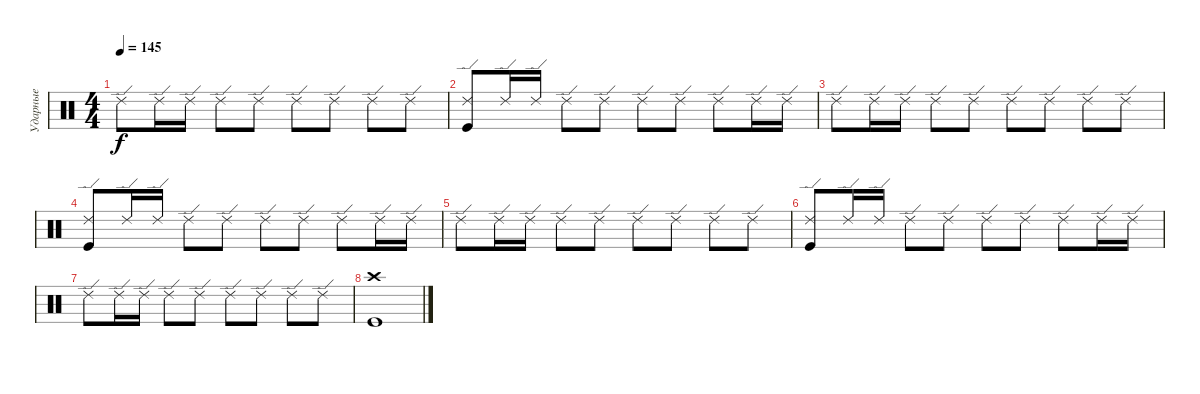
\track ("Ударные" "Ударные") {instrument percussion}
\staff {score}
\articulation defaults
\ts (4 4)
\tempo 145
\clef neutral
\ks c "Ride (edge) 2".8{dy f} "Ride (edge) 2".16 "Ride (edge) 2".16 "Ride (edge) 2".8 "Ride (edge) 2".8 "Ride (edge) 2".8 "Ride (edge) 2".8 "Ride (edge) 2".8 "Ride (edge) 2".8
|
("Ride (edge) 2" "Kick (hit)").8 "Ride (edge) 2".16 "Ride (edge) 2".16 "Ride (edge) 2".8 "Ride (edge) 2".8 "Ride (edge) 2".8 "Ride (edge) 2".8 "Ride (edge) 2".8 "Ride (edge) 2".16 "Ride (edge) 2".16 |
"Ride (edge) 2".8 "Ride (edge) 2".16 "Ride (edge) 2".16 "Ride (edge) 2".8 "Ride (edge) 2".8 "Ride (edge) 2".8 "Ride (edge) 2".8 "Ride (edge) 2".8 "Ride (edge) 2".8 |
("Ride (edge) 2" "Kick (hit)").8 "Ride (edge) 2".16 "Ride (edge) 2".16 "Ride (edge) 2".8 "Ride (edge) 2".8 "Ride (edge) 2".8 "Ride (edge) 2".8 "Ride (edge) 2".8 "Ride (edge) 2".16 "Ride (edge) 2".16 |
"Ride (edge) 2".8 "Ride (edge) 2".16 "Ride (edge) 2".16 "Ride (edge) 2".8 "Ride (edge) 2".8 "Ride (edge) 2".8 "Ride (edge) 2".8 "Ride (edge) 2".8 "Ride (edge) 2".8 |
("Ride (edge) 2" "Kick (hit)").8 "Ride (edge) 2".16 "Ride (edge) 2".16 "Ride (edge) 2".8 "Ride (edge) 2".8 "Ride (edge) 2".8 "Ride (edge) 2".8 "Ride (edge) 2".8 "Ride (edge) 2".16 "Ride (edge) 2".16 |
"Ride (edge) 2".8 "Ride (edge) 2".16 "Ride (edge) 2".16 "Ride (edge) 2".8 "Ride (edge) 2".8 "Ride (edge) 2".8 "Ride (edge) 2".8 "Ride (edge) 2".8 "Ride (edge) 2".8 |
("Crash high (hit)" "Kick (hit)").1
